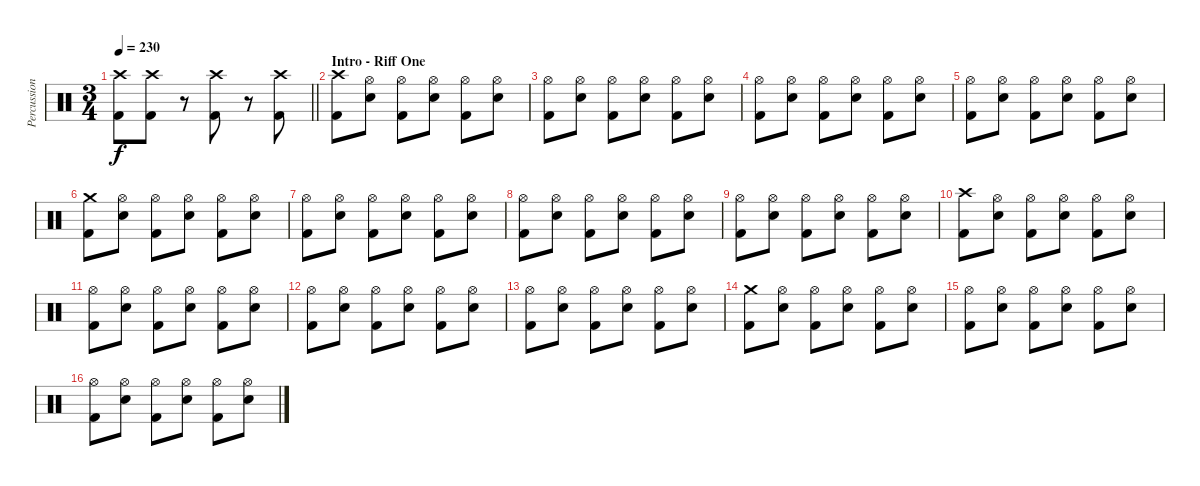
\track ("Percussion" "Percussion") {instrument percussion}
\staff {score}
\articulation defaults
\ts (3 4)
\tempo 230
\clef neutral
\barLineRight lightlight
\ks c
("Crash high (hit)" "Kick (hit) 2").8{dy f} ("Crash high (hit)" "Kick (hit) 2").8 r.8 ("Crash high (hit)" "Kick (hit) 2").8 r.8 ("Crash high (hit)" "Kick (hit) 2").8 |
\section ("" "Intro - Riff One")
("Crash high (hit)" "Kick (hit) 2").8 ("Hi-Hat (open)" "Electric Snare (hit)").8 ("Hi-Hat (open)" "Kick (hit) 2").8 ("Hi-Hat (open)" "Electric Snare (hit)").8 ("Hi-Hat (open)" "Kick (hit) 2").8 ("Hi-Hat (open)" "Electric Snare (hit)").8 |
("Hi-Hat (open)" "Kick (hit) 2").8 ("Hi-Hat (open)" "Electric Snare (hit)").8 ("Hi-Hat (open)" "Kick (hit) 2").8 ("Hi-Hat (open)" "Electric Snare (hit)").8 ("Hi-Hat (open)" "Kick (hit) 2").8 ("Hi-Hat (open)" "Electric Snare (hit)").8 |
("Hi-Hat (open)" "Kick (hit) 2").8 ("Hi-Hat (open)" "Electric Snare (hit)").8 ("Hi-Hat (open)" "Kick (hit) 2").8 ("Hi-Hat (open)" "Electric Snare (hit)").8 ("Hi-Hat (open)" "Kick (hit) 2").8 ("Hi-Hat (open)" "Electric Snare (hit)").8 |
("Hi-Hat (open)" "Kick (hit) 2").8 ("Hi-Hat (open)" "Electric Snare (hit)").8 ("Hi-Hat (open)" "Kick (hit) 2").8 ("Hi-Hat (open)" "Electric Snare (hit)").8 ("Hi-Hat (open)" "Kick (hit) 2").8 ("Hi-Hat (open)" "Electric Snare (hit)").8 |
("Crash medium (hit)" "Kick (hit) 2").8 ("Hi-Hat (open)" "Electric Snare (hit)").8 ("Hi-Hat (open)" "Kick (hit) 2").8 ("Hi-Hat (open)" "Electric Snare (hit)").8 ("Hi-Hat (open)" "Kick (hit) 2").8 ("Hi-Hat (open)" "Electric Snare (hit)").8 |
("Hi-Hat (open)" "Kick (hit) 2").8 ("Hi-Hat (open)" "Electric Snare (hit)").8 ("Hi-Hat (open)" "Kick (hit) 2").8 ("Hi-Hat (open)" "Electric Snare (hit)").8 ("Hi-Hat (open)" "Kick (hit) 2").8 ("Hi-Hat (open)" "Electric Snare (hit)").8 |
("Hi-Hat (open)" "Kick (hit) 2").8 ("Hi-Hat (open)" "Electric Snare (hit)").8 ("Hi-Hat (open)" "Kick (hit) 2").8 ("Hi-Hat (open)" "Electric Snare (hit)").8 ("Hi-Hat (open)" "Kick (hit) 2").8 ("Hi-Hat (open)" "Electric Snare (hit)").8 |
("Hi-Hat (open)" "Kick (hit) 2").8 ("Hi-Hat (open)" "Electric Snare (hit)").8 ("Hi-Hat (open)" "Kick (hit) 2").8 ("Hi-Hat (open)" "Electric Snare (hit)").8 ("Hi-Hat (open)" "Kick (hit) 2").8 ("Hi-Hat (open)" "Electric Snare (hit)").8 |
("Crash high (hit)" "Kick (hit) 2").8 ("Hi-Hat (open)" "Electric Snare (hit)").8 ("Hi-Hat (open)" "Kick (hit) 2").8 ("Hi-Hat (open)" "Electric Snare (hit)").8 ("Hi-Hat (open)" "Kick (hit) 2").8 ("Hi-Hat (open)" "Electric Snare (hit)").8 |
("Hi-Hat (open)" "Kick (hit) 2").8 ("Hi-Hat (open)" "Electric Snare (hit)").8 ("Hi-Hat (open)" "Kick (hit) 2").8 ("Hi-Hat (open)" "Electric Snare (hit)").8 ("Hi-Hat (open)" "Kick (hit) 2").8 ("Hi-Hat (open)" "Electric Snare (hit)").8 |
("Hi-Hat (open)" "Kick (hit) 2").8 ("Hi-Hat (open)" "Electric Snare (hit)").8 ("Hi-Hat (open)" "Kick (hit) 2").8 ("Hi-Hat (open)" "Electric Snare (hit)").8 ("Hi-Hat (open)" "Kick (hit) 2").8 ("Hi-Hat (open)" "Electric Snare (hit)").8 |
("Hi-Hat (open)" "Kick (hit) 2").8 ("Hi-Hat (open)" "Electric Snare (hit)").8 ("Hi-Hat (open)" "Kick (hit) 2").8 ("Hi-Hat (open)" "Electric Snare (hit)").8 ("Hi-Hat (open)" "Kick (hit) 2").8 ("Hi-Hat (open)" "Electric Snare (hit)").8 |
("Crash medium (hit)" "Kick (hit) 2").8 ("Hi-Hat (open)" "Electric Snare (hit)").8 ("Hi-Hat (open)" "Kick (hit) 2").8 ("Hi-Hat (open)" "Electric Snare (hit)").8 ("Hi-Hat (open)" "Kick (hit) 2").8 ("Hi-Hat (open)" "Electric Snare (hit)").8 |
("Hi-Hat (open)" "Kick (hit) 2").8 ("Hi-Hat (open)" "Electric Snare (hit)").8 ("Hi-Hat (open)" "Kick (hit) 2").8 ("Hi-Hat (open)" "Electric Snare (hit)").8 ("Hi-Hat (open)" "Kick (hit) 2").8 ("Hi-Hat (open)" "Electric Snare (hit)").8 |
("Hi-Hat (open)" "Kick (hit) 2").8 ("Hi-Hat (open)" "Electric Snare (hit)").8 ("Hi-Hat (open)" "Kick (hit) 2").8 ("Hi-Hat (open)" "Electric Snare (hit)").8 ("Hi-Hat (open)" "Kick (hit) 2").8 ("Hi-Hat (open)" "Electric Snare (hit)").8
